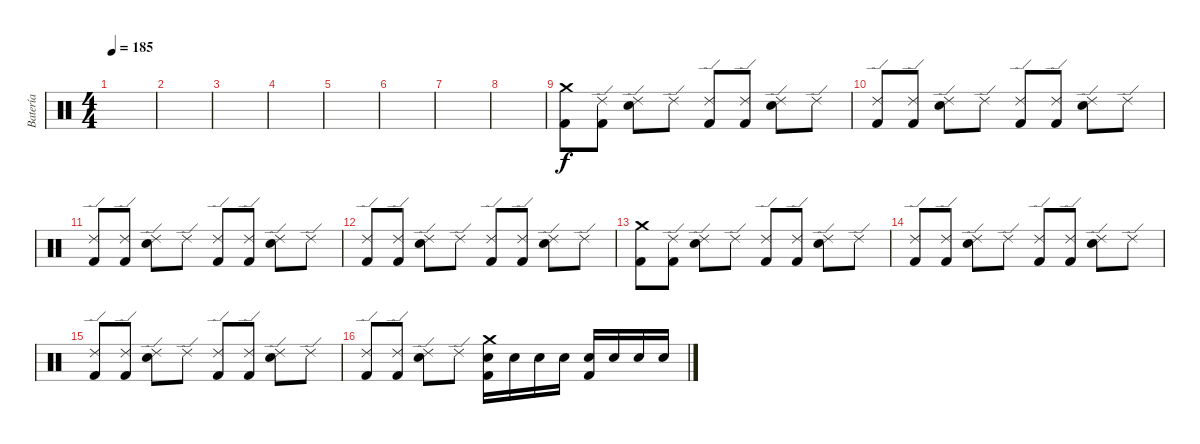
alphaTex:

\track ("Batería" "Batería") {instrument percussion}
\staff {score}
\articulation defaults
\ts (4 4)
\tempo 185
\clef neutral
\ks c
|
|
|
|
|
|
|
|
("Crash medium (hit)" "Kick (hit) 2").8 ("Ride (edge) 2" "Kick (hit) 2").8 ("Ride (edge) 2" "Electric Snare (hit)").8 "Ride (edge) 2".8 ("Ride (edge) 2" "Kick (hit) 2").8 ("Ride (edge) 2" "Kick (hit) 2").8 ("Ride (edge) 2" "Electric Snare (hit)").8 "Ride (edge) 2".8 |
("Ride (edge) 2" "Kick (hit) 2").8 ("Ride (edge) 2" "Kick (hit) 2").8 ("Ride (edge) 2" "Electric Snare (hit)").8 "Ride (edge) 2".8 ("Ride (edge) 2" "Kick (hit) 2").8 ("Ride (edge) 2" "Kick (hit) 2").8 ("Ride (edge) 2" "Electric Snare (hit)").8 "Ride (edge) 2".8 |
("Ride (edge) 2" "Kick (hit) 2").8 ("Ride (edge) 2" "Kick (hit) 2").8 ("Ride (edge) 2" "Electric Snare (hit)").8 "Ride (edge) 2".8 ("Ride (edge) 2" "Kick (hit) 2").8 ("Ride (edge) 2" "Kick (hit) 2").8 ("Ride (edge) 2" "Electric Snare (hit)").8 "Ride (edge) 2".8 |
("Ride (edge) 2" "Kick (hit) 2").8 ("Ride (edge) 2" "Kick (hit) 2").8 ("Ride (edge) 2" "Electric Snare (hit)").8 "Ride (edge) 2".8 ("Ride (edge) 2" "Kick (hit) 2").8 ("Ride (edge) 2" "Kick (hit) 2").8 ("Ride (edge) 2" "Electric Snare (hit)").8 "Ride (edge) 2".8 |
("Crash medium (hit)" "Kick (hit) 2").8 ("Ride (edge) 2" "Kick (hit) 2").8 ("Ride (edge) 2" "Electric Snare (hit)").8 "Ride (edge) 2".8 ("Ride (edge) 2" "Kick (hit) 2").8 ("Ride (edge) 2" "Kick (hit) 2").8 ("Ride (edge) 2" "Electric Snare (hit)").8 "Ride (edge) 2".8 |
("Ride (edge) 2" "Kick (hit) 2").8 ("Ride (edge) 2" "Kick (hit) 2").8 ("Ride (edge) 2" "Electric Snare (hit)").8 "Ride (edge) 2".8 ("Ride (edge) 2" "Kick (hit) 2").8 ("Ride (edge) 2" "Kick (hit) 2").8 ("Ride (edge) 2" "Electric Snare (hit)").8 "Ride (edge) 2".8 |
("Ride (edge) 2" "Kick (hit) 2").8 ("Ride (edge) 2" "Kick (hit) 2").8 ("Ride (edge) 2" "Electric Snare (hit)").8 "Ride (edge) 2".8 ("Ride (edge) 2" "Kick (hit) 2").8 ("Ride (edge) 2" "Kick (hit) 2").8 ("Ride (edge) 2" "Electric Snare (hit)").8 "Ride (edge) 2".8 |
("Ride (edge) 2" "Kick (hit) 2").8 ("Ride (edge) 2" "Kick (hit) 2").8 ("Ride (edge) 2" "Electric Snare (hit)").8 "Ride (edge) 2".8 ("Crash medium (hit)" "Electric Snare (hit)" "Kick (hit) 2").16 "Electric Snare (hit)".16 "Electric Snare (hit)".16 "Electric Snare (hit)".16 ("Electric Snare (hit)" "Kick (hit) 2").16 "Electric Snare (hit)".16 "Electric Snare (hit)".16 "Electric Snare (hit)".16
